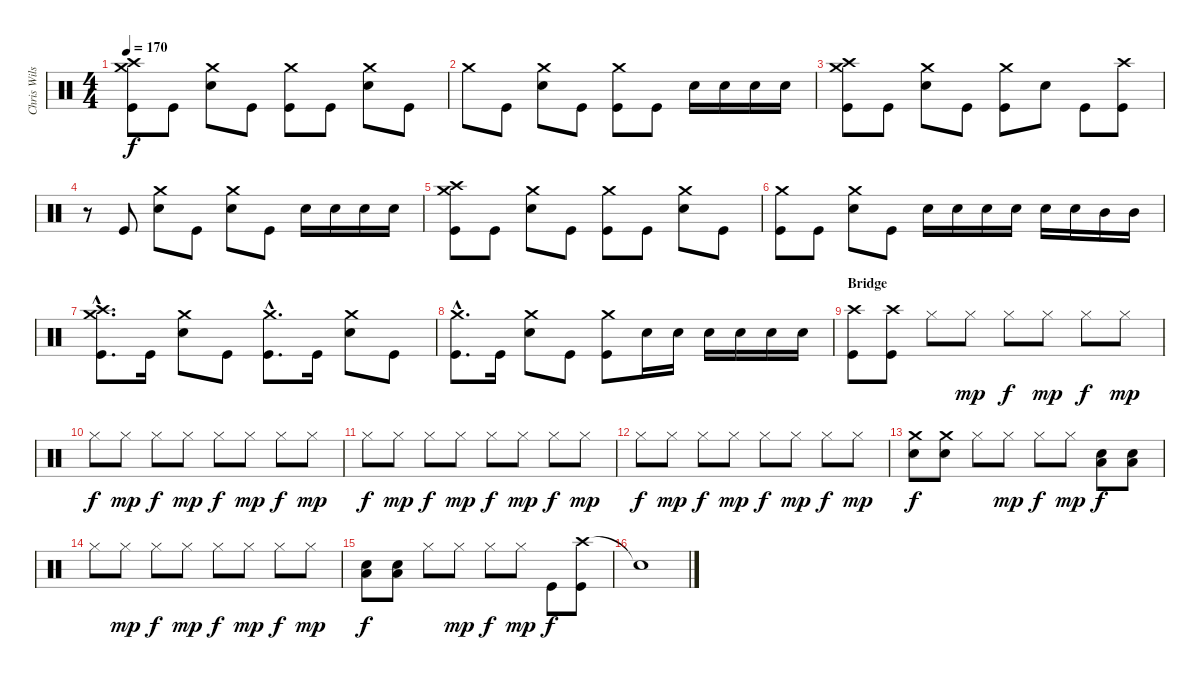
\track ("Chris Wilson" "Chris Wils") {instrument percussion}
\staff {score}
\articulation defaults
\ts (4 4)
\tempo 170
\clef neutral
\ks c
("Crash medium (hit)" "Crash high (hit)" "Kick (hit)").8{dy f} "Kick (hit)".8 ("Crash medium (hit)" "Electric Snare (hit)").8 "Kick (hit)".8 ("Crash medium (hit)" "Kick (hit)").8 "Kick (hit)".8 ("Crash medium (hit)" "Electric Snare (hit)").8 "Kick (hit)".8 |
"Crash medium (hit)".8 "Kick (hit)".8 ("Crash medium (hit)" "Electric Snare (hit)").8 "Kick (hit)".8 ("Crash medium (hit)" "Kick (hit)").8 "Kick (hit)".8 "Electric Snare (hit)".16 "Electric Snare (hit)".16 "Electric Snare (hit)".16 "Electric Snare (hit)".16 |
("Crash medium (hit)" "Crash high (hit)" "Kick (hit)").8 "Kick (hit)".8 ("Crash medium (hit)" "Electric Snare (hit)").8 "Kick (hit)".8 ("Crash medium (hit)" "Kick (hit)").8 "Electric Snare (hit)".8 "Kick (hit)".8 ("Crash high (hit)" "Kick (hit)").8 |
r.8 "Kick (hit)".8 ("Crash medium (hit)" "Electric Snare (hit)").8 "Kick (hit)".8 ("Crash medium (hit)" "Electric Snare (hit)").8 "Kick (hit)".8 "Electric Snare (hit)".16 "Electric Snare (hit)".16 "Electric Snare (hit)".16 "Electric Snare (hit)".16 |
("Crash medium (hit)" "Crash high (hit)" "Kick (hit)").8 "Kick (hit)".8 ("Crash medium (hit)" "Electric Snare (hit)").8 "Kick (hit)".8 ("Crash medium (hit)" "Kick (hit)").8 "Kick (hit)".8 ("Crash medium (hit)" "Electric Snare (hit)").8 "Kick (hit)".8 |
("Crash medium (hit)" "Kick (hit)").8 "Kick (hit)".8 ("Crash medium (hit)" "Electric Snare (hit)").8 "Kick (hit)".8 "Electric Snare (hit)".16 "Electric Snare (hit)".16 "Electric Snare (hit)".16 "Electric Snare (hit)".16 "Electric Snare (hit)".16 "Electric Snare (hit)".16 "Mid Tom (hit)".16 "Mid Tom (hit)".16 |
("Crash high (hit)"{hac} "Crash medium (hit)"{hac} "Kick (hit)"{hac}).8{d} "Kick (hit)".16 ("Crash medium (hit)" "Electric Snare (hit)").8 "Kick (hit)".8 ("Crash medium (hit)"{hac} "Kick (hit)"{hac}).8{d} "Kick (hit)".16 ("Crash medium (hit)" "Electric Snare (hit)").8 "Kick (hit)".8 |
("Crash medium (hit)"{hac} "Kick (hit)"{hac}).8{d} "Kick (hit)".16 ("Crash medium (hit)" "Electric Snare (hit)").8 "Kick (hit)".8 ("Crash medium (hit)" "Kick (hit)").8 "Electric Snare (hit)".16 "Electric Snare (hit)".16 "Electric Snare (hit)".16 "Electric Snare (hit)".16 "Electric Snare (hit)".16 "Electric Snare (hit)".16 |
\section ("" "Bridge")
("Crash high (hit)" "Kick (hit)").8 ("Crash high (hit)" "Kick (hit)").8 "Hi-Hat (closed)".8 "Hi-Hat (closed)".8{dy mp} "Hi-Hat (closed)".8{dy f} "Hi-Hat (closed)".8{dy mp} "Hi-Hat (closed)".8{dy f} "Hi-Hat (closed)".8{dy mp} |
"Hi-Hat (closed)".8{dy f} "Hi-Hat (closed)".8{dy mp} "Hi-Hat (closed)".8{dy f} "Hi-Hat (closed)".8{dy mp} "Hi-Hat (closed)".8{dy f} "Hi-Hat (closed)".8{dy mp} "Hi-Hat (closed)".8{dy f} "Hi-Hat (closed)".8{dy mp} |
"Hi-Hat (closed)".8{dy f} "Hi-Hat (closed)".8{dy mp} "Hi-Hat (closed)".8{dy f} "Hi-Hat (closed)".8{dy mp} "Hi-Hat (closed)".8{dy f} "Hi-Hat (closed)".8{dy mp} "Hi-Hat (closed)".8{dy f} "Hi-Hat (closed)".8{dy mp} |
"Hi-Hat (closed)".8{dy f} "Hi-Hat (closed)".8{dy mp} "Hi-Hat (closed)".8{dy f} "Hi-Hat (closed)".8{dy mp} "Hi-Hat (closed)".8{dy f} "Hi-Hat (closed)".8{dy mp} "Hi-Hat (closed)".8{dy f} "Hi-Hat (closed)".8{dy mp} |
("Crash medium (hit)" "Electric Snare (hit)").8{dy f} ("Crash medium (hit)" "Electric Snare (hit)").8 "Hi-Hat (closed)".8 "Hi-Hat (closed)".8{dy mp} "Hi-Hat (closed)".8{dy f} "Hi-Hat (closed)".8{dy mp} ("Low Tom (hit)" "Electric Snare (hit)").8{dy f} ("Low Tom (hit)" "Electric Snare (hit)").8 |
"Hi-Hat (closed)".8 "Hi-Hat (closed)".8{dy mp} "Hi-Hat (closed)".8{dy f} "Hi-Hat (closed)".8{dy mp} "Hi-Hat (closed)".8{dy f} "Hi-Hat (closed)".8{dy mp} "Hi-Hat (closed)".8{dy f} "Hi-Hat (closed)".8{dy mp} |
("Low Tom (hit)" "Electric Snare (hit)").8{dy f} ("Low Tom (hit)" "Electric Snare (hit)").8 "Hi-Hat (closed)".8 "Hi-Hat (closed)".8{dy mp} "Hi-Hat (closed)".8{dy f} "Hi-Hat (closed)".8{dy mp} "Kick (hit)".8{dy f} ("Crash high (hit)" "Kick (hit)").8 |
"Snare (hit)"{t}.1
